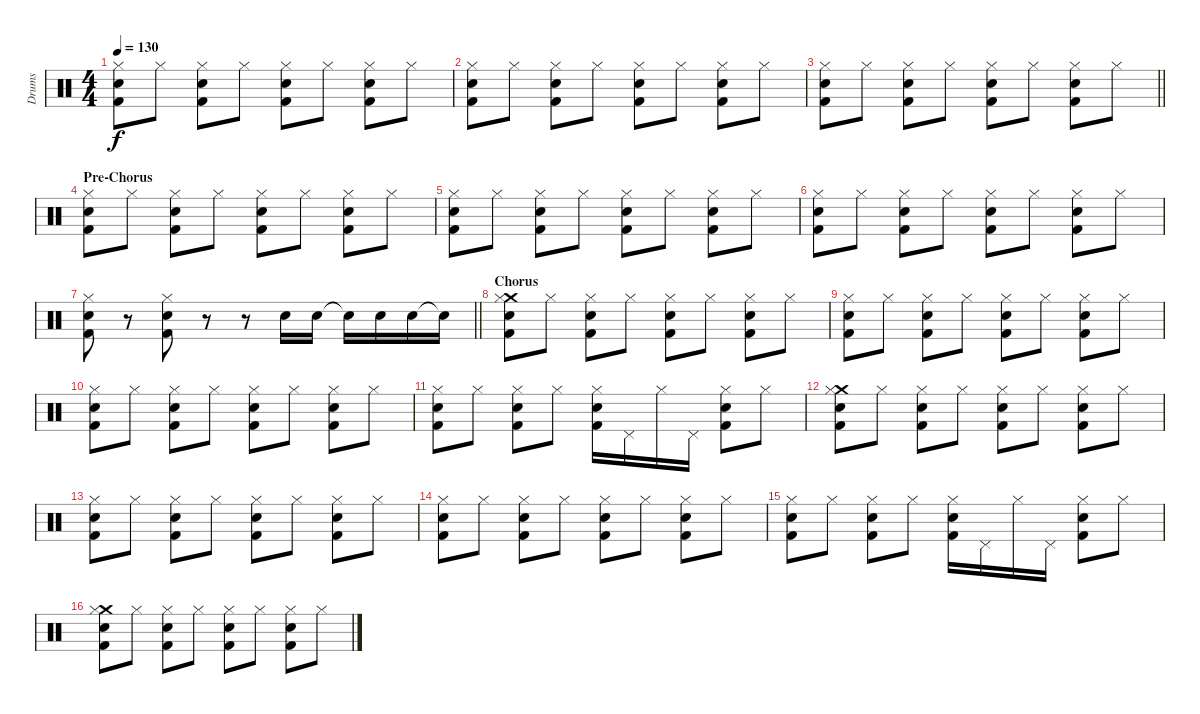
\track ("Drums" "Drums") {instrument percussion}
\staff {score}
\articulation defaults
\ts (4 4)
\tempo 130
\clef neutral
\ks c
("Hi-Hat (closed)" "Electric Snare (hit)" "Kick (hit) 2").8{dy f} "Hi-Hat (closed)".8 ("Hi-Hat (closed)" "Electric Snare (hit)" "Kick (hit) 2").8 "Hi-Hat (closed)".8 ("Hi-Hat (closed)" "Electric Snare (hit)" "Kick (hit) 2").8 "Hi-Hat (closed)".8 ("Hi-Hat (closed)" "Electric Snare (hit)" "Kick (hit) 2").8 "Hi-Hat (closed)".8 |
("Hi-Hat (closed)" "Electric Snare (hit)" "Kick (hit) 2").8 "Hi-Hat (closed)".8 ("Hi-Hat (closed)" "Electric Snare (hit)" "Kick (hit) 2").8 "Hi-Hat (closed)".8 ("Hi-Hat (closed)" "Electric Snare (hit)" "Kick (hit) 2").8 "Hi-Hat (closed)".8 ("Hi-Hat (closed)" "Electric Snare (hit)" "Kick (hit) 2").8 "Hi-Hat (closed)".8 |
\barLineRight lightlight
("Hi-Hat (closed)" "Electric Snare (hit)" "Kick (hit) 2").8 "Hi-Hat (closed)".8 ("Hi-Hat (closed)" "Electric Snare (hit)" "Kick (hit) 2").8 "Hi-Hat (closed)".8 ("Hi-Hat (closed)" "Electric Snare (hit)" "Kick (hit) 2").8 "Hi-Hat (closed)".8 ("Hi-Hat (closed)" "Electric Snare (hit)" "Kick (hit) 2").8 "Hi-Hat (closed)".8 |
\section ("" "Pre-Chorus")
("Hi-Hat (closed)" "Electric Snare (hit)" "Kick (hit) 2").8 "Hi-Hat (closed)".8 ("Hi-Hat (closed)" "Electric Snare (hit)" "Kick (hit) 2").8 "Hi-Hat (closed)".8 ("Hi-Hat (closed)" "Electric Snare (hit)" "Kick (hit) 2").8 "Hi-Hat (closed)".8 ("Hi-Hat (closed)" "Electric Snare (hit)" "Kick (hit) 2").8 "Hi-Hat (closed)".8 |
("Hi-Hat (closed)" "Electric Snare (hit)" "Kick (hit) 2").8 "Hi-Hat (closed)".8 ("Hi-Hat (closed)" "Electric Snare (hit)" "Kick (hit) 2").8 "Hi-Hat (closed)".8 ("Hi-Hat (closed)" "Electric Snare (hit)" "Kick (hit) 2").8 "Hi-Hat (closed)".8 ("Hi-Hat (closed)" "Electric Snare (hit)" "Kick (hit) 2").8 "Hi-Hat (closed)".8 |
("Hi-Hat (closed)" "Electric Snare (hit)" "Kick (hit) 2").8 "Hi-Hat (closed)".8 ("Hi-Hat (closed)" "Electric Snare (hit)" "Kick (hit) 2").8 "Hi-Hat (closed)".8 ("Hi-Hat (closed)" "Electric Snare (hit)" "Kick (hit) 2").8 "Hi-Hat (closed)".8 ("Hi-Hat (closed)" "Electric Snare (hit)" "Kick (hit) 2").8 "Hi-Hat (closed)".8 |
\barLineRight lightlight
("Hi-Hat (closed)" "Electric Snare (hit)" "Kick (hit) 2").8 r.8 ("Hi-Hat (closed)" "Electric Snare (hit)" "Kick (hit) 2").8 r.8 r.8 "Snare (hit) 2".16 "Snare (hit) 2".16 "Snare (hit) 2"{t}.16 "Snare (hit) 2".16 "Snare (hit) 2".16 "Snare (hit)"{t}.16 |
\section ("" "Chorus")
("Crash medium (hit)" "Hi-Hat (closed)" "Electric Snare (hit)" "Kick (hit) 2").8 "Hi-Hat (closed)".8 ("Hi-Hat (closed)" "Electric Snare (hit)" "Kick (hit) 2").8 "Hi-Hat (closed)".8 ("Hi-Hat (closed)" "Electric Snare (hit)" "Kick (hit) 2").8 "Hi-Hat (closed)".8 ("Hi-Hat (closed)" "Electric Snare (hit)" "Kick (hit) 2").8 "Hi-Hat (closed)".8 |
("Hi-Hat (closed)" "Electric Snare (hit)" "Kick (hit) 2").8 "Hi-Hat (closed)".8 ("Hi-Hat (closed)" "Electric Snare (hit)" "Kick (hit) 2").8 "Hi-Hat (closed)".8 ("Hi-Hat (closed)" "Electric Snare (hit)" "Kick (hit) 2").8 "Hi-Hat (closed)".8 ("Hi-Hat (closed)" "Electric Snare (hit)" "Kick (hit) 2").8 "Hi-Hat (closed)".8 |
("Hi-Hat (closed)" "Electric Snare (hit)" "Kick (hit) 2").8 "Hi-Hat (closed)".8 ("Hi-Hat (closed)" "Electric Snare (hit)" "Kick (hit) 2").8 "Hi-Hat (closed)".8 ("Hi-Hat (closed)" "Electric Snare (hit)" "Kick (hit) 2").8 "Hi-Hat (closed)".8 ("Hi-Hat (closed)" "Electric Snare (hit)" "Kick (hit) 2").8 "Hi-Hat (closed)".8 |
("Hi-Hat (closed)" "Electric Snare (hit)" "Kick (hit) 2").8 "Hi-Hat (closed)".8 ("Hi-Hat (closed)" "Electric Snare (hit)" "Kick (hit) 2").8 "Hi-Hat (closed)".8 ("Hi-Hat (closed)" "Electric Snare (hit)" "Kick (hit) 2").16 "Pedal Hi-Hat (hit)".16 "Hi-Hat (closed)".16 "Pedal Hi-Hat (hit)".16 ("Hi-Hat (closed)" "Electric Snare (hit)" "Kick (hit) 2").8 "Hi-Hat (closed)".8 |
("Crash medium (hit)" "Hi-Hat (closed)" "Electric Snare (hit)" "Kick (hit) 2").8 "Hi-Hat (closed)".8 ("Hi-Hat (closed)" "Electric Snare (hit)" "Kick (hit) 2").8 "Hi-Hat (closed)".8 ("Hi-Hat (closed)" "Electric Snare (hit)" "Kick (hit) 2").8 "Hi-Hat (closed)".8 ("Hi-Hat (closed)" "Electric Snare (hit)" "Kick (hit) 2").8 "Hi-Hat (closed)".8 |
("Hi-Hat (closed)" "Electric Snare (hit)" "Kick (hit) 2").8 "Hi-Hat (closed)".8 ("Hi-Hat (closed)" "Electric Snare (hit)" "Kick (hit) 2").8 "Hi-Hat (closed)".8 ("Hi-Hat (closed)" "Electric Snare (hit)" "Kick (hit) 2").8 "Hi-Hat (closed)".8 ("Hi-Hat (closed)" "Electric Snare (hit)" "Kick (hit) 2").8 "Hi-Hat (closed)".8 |
("Hi-Hat (closed)" "Electric Snare (hit)" "Kick (hit) 2").8 "Hi-Hat (closed)".8 ("Hi-Hat (closed)" "Electric Snare (hit)" "Kick (hit) 2").8 "Hi-Hat (closed)".8 ("Hi-Hat (closed)" "Electric Snare (hit)" "Kick (hit) 2").8 "Hi-Hat (closed)".8 ("Hi-Hat (closed)" "Electric Snare (hit)" "Kick (hit) 2").8 "Hi-Hat (closed)".8 |
("Hi-Hat (closed)" "Electric Snare (hit)" "Kick (hit) 2").8 "Hi-Hat (closed)".8 ("Hi-Hat (closed)" "Electric Snare (hit)" "Kick (hit) 2").8 "Hi-Hat (closed)".8 ("Hi-Hat (closed)" "Electric Snare (hit)" "Kick (hit) 2").16 "Pedal Hi-Hat (hit)".16 "Hi-Hat (closed)".16 "Pedal Hi-Hat (hit)".16 ("Hi-Hat (closed)" "Electric Snare (hit)" "Kick (hit) 2").8 "Hi-Hat (closed)".8 |
("Crash medium (hit)" "Hi-Hat (closed)" "Electric Snare (hit)" "Kick (hit) 2").8 "Hi-Hat (closed)".8 ("Hi-Hat (closed)" "Electric Snare (hit)" "Kick (hit) 2").8 "Hi-Hat (closed)".8 ("Hi-Hat (closed)" "Electric Snare (hit)" "Kick (hit) 2").8 "Hi-Hat (closed)".8 ("Hi-Hat (closed)" "Electric Snare (hit)" "Kick (hit) 2").8 "Hi-Hat (closed)".8
